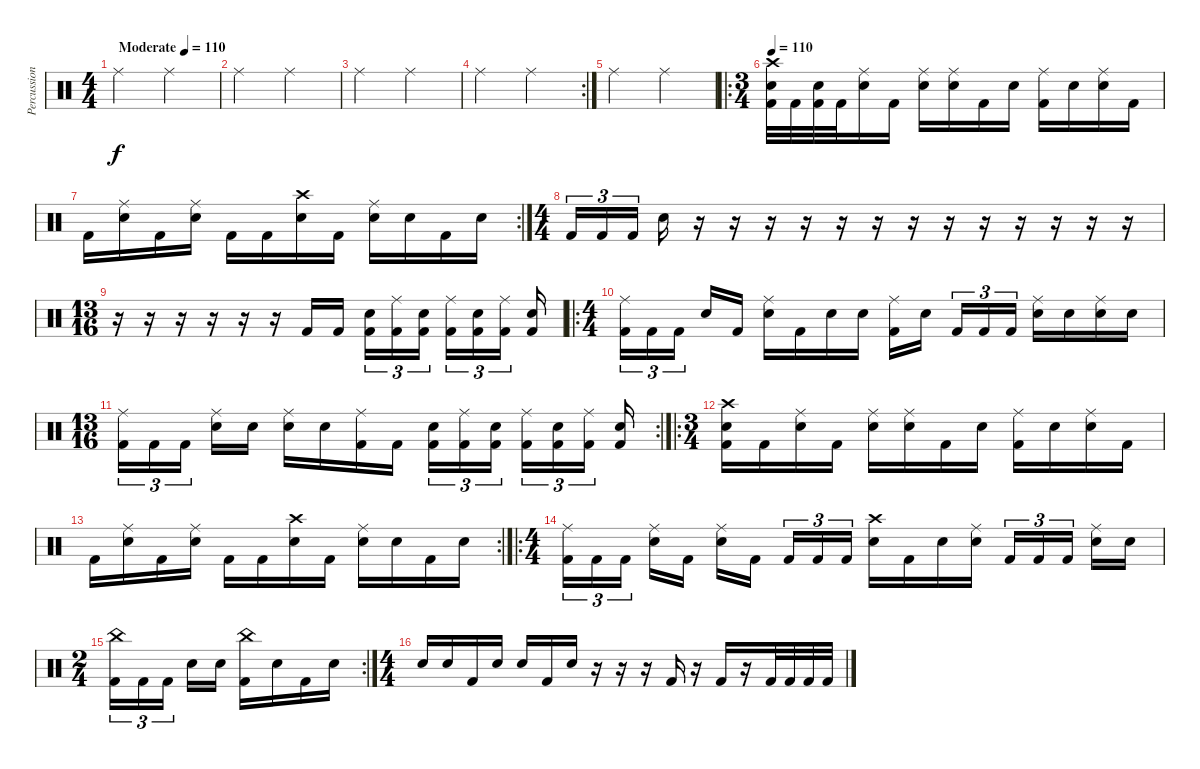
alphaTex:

\track ("Percussion" "Percussion") {instrument percussion}
\staff {score}
\articulation defaults
\ts (4 4)
\tempo (110 "Moderate")
\tempo 80
\tempo (110 "Moderate")
\clef neutral
\ks c "Ride (middle)".2{dy f} "Ride (middle)".2
|
"Ride (middle)".2 "Ride (middle)".2 |
"Ride (middle)".2 "Ride (middle)".2 |
\rc 2 "Ride (middle)".2 "Ride (middle)".2
|
"Ride (middle)".2 "Ride (middle)".2 |
\ro
\ts (3 4)
\tempo 100
\tempo 110
("Crash high (hit)" "Snare (hit) 2" "Kick (hit) 2").32 "Kick (hit) 2".32 ("Snare (hit) 2" "Kick (hit) 2").32 "Kick (hit) 2".32 ("Ride (middle)" "Snare (hit) 2").16 "Kick (hit) 2".16 ("Ride (middle)" "Snare (hit) 2").16 ("Ride (middle)" "Snare (hit) 2").16 "Kick (hit) 2".16 "Snare (hit) 2".16 ("Ride (middle)" "Kick (hit) 2").16 "Snare (hit) 2".16 ("Ride (middle)" "Snare (hit) 2").16 "Kick (hit) 2".16 |
\rc 2 "Kick (hit) 2".16
("Ride (middle)" "Snare (hit) 2").16 "Kick (hit) 2".16 ("Ride (middle)" "Snare (hit) 2").16 "Kick (hit) 2".16 "Kick (hit) 2".16 ("Crash high (hit)" "Snare (hit) 2").16 "Kick (hit) 2".16 ("Ride (middle)" "Snare (hit) 2").16 "Snare (hit) 2".16 "Kick (hit) 2".16 "Snare (hit) 2".16 |
\ts (4 4)
"Kick (hit) 2".16{tu (3 2)} "Kick (hit) 2".16{tu (3 2)} "Kick (hit) 2".16{tu (3 2) beam splitsecondary} "Snare (hit) 2".16 r.16 r.16 r.16 r.16 r.16 r.16 r.16 r.16 r.16 r.16 r.16 r.16 r.16 |
\ts (13 16)
r.16 r.16 r.16 r.16 r.16 r.16 "Kick (hit) 2".16 "Kick (hit) 2".16 ("Snare (hit) 2" "Kick (hit) 2").16{tu (3 2)} ("Ride (middle)" "Kick (hit) 2").16{tu (3 2)} ("Snare (hit) 2" "Kick (hit) 2").16{tu (3 2)} ("Ride (middle)" "Kick (hit) 2").16{tu (3 2)} ("Snare (hit) 2" "Kick (hit) 2").16{tu (3 2)} ("Ride (middle)" "Kick (hit) 2").16{tu (3 2)} ("Snare (hit) 2" "Kick (hit) 2").16 |
\ro
\ts (4 4)
("Ride (middle)" "Kick (hit) 2").16{tu (3 2)} "Kick (hit) 2".16{tu (3 2)} "Kick (hit) 2".16{tu (3 2) beam splitsecondary} "Snare (hit) 2".16 "Kick (hit) 2".16 ("Ride (middle)" "Snare (hit) 2").16 "Kick (hit) 2".16 "Snare (hit) 2".16 "Snare (hit) 2".16 ("Ride (middle)" "Kick (hit) 2").16 "Snare (hit) 2".16{beam splitsecondary} "Kick (hit) 2".16{tu (3 2)} "Kick (hit) 2".16{tu (3 2)} "Kick (hit) 2".16{tu (3 2)} ("Ride (middle)" "Snare (hit) 2").16 "Snare (hit) 2".16 ("Ride (middle)" "Snare (hit) 2").16 "Snare (hit) 2".16 |
\rc 2
\ts (13 16)
("Ride (middle)" "Kick (hit) 2").16{tu (3 2)} "Kick (hit) 2".16{tu (3 2)} "Kick (hit) 2".16{tu (3 2)} ("Ride (middle)" "Snare (hit) 2").16 "Snare (hit) 2".16 ("Ride (middle)" "Snare (hit) 2").16 "Snare (hit) 2".16 ("Ride (middle)" "Kick (hit) 2").16 "Kick (hit) 2".16 ("Snare (hit) 2" "Kick (hit) 2").16{tu (3 2)} ("Ride (middle)" "Kick (hit) 2").16{tu (3 2)} ("Snare (hit) 2" "Kick (hit) 2").16{tu (3 2)} ("Ride (middle)" "Kick (hit) 2").16{tu (3 2)} ("Snare (hit) 2" "Kick (hit) 2").16{tu (3 2)} ("Ride (middle)" "Kick (hit) 2").16{tu (3 2)} ("Snare (hit) 2" "Kick (hit) 2").16 |
\ro
\ts (3 4)
("Crash high (hit)" "Snare (hit) 2" "Kick (hit) 2").16 "Kick (hit) 2".16 ("Ride (middle)" "Snare (hit) 2").16 "Kick (hit) 2".16 ("Ride (middle)" "Snare (hit) 2").16 ("Ride (middle)" "Snare (hit) 2").16 "Kick (hit) 2".16 "Snare (hit) 2".16 ("Ride (middle)" "Kick (hit) 2").16 "Snare (hit) 2".16 ("Ride (middle)" "Snare (hit) 2").16 "Kick (hit) 2".16 |
\rc 2 "Kick (hit) 2".16
("Ride (middle)" "Snare (hit) 2").16 "Kick (hit) 2".16 ("Ride (middle)" "Snare (hit) 2").16 "Kick (hit) 2".16 "Kick (hit) 2".16 ("Crash high (hit)" "Snare (hit) 2").16 "Kick (hit) 2".16 ("Ride (middle)" "Snare (hit) 2").16 "Snare (hit) 2".16 "Kick (hit) 2".16 "Snare (hit) 2".16 |
\ro
\ts (4 4)
("Ride (middle)" "Kick (hit) 2").16{tu (3 2)} "Kick (hit) 2".16{tu (3 2)} "Kick (hit) 2".16{tu (3 2) beam splitsecondary} ("Ride (middle)" "Snare (hit) 2").16 "Kick (hit) 2".16 ("Ride (middle)" "Snare (hit) 2").16 "Kick (hit) 2".16{beam splitsecondary} "Kick (hit) 2".16{tu (3 2)} "Kick (hit) 2".16{tu (3 2)} "Kick (hit) 2".16{tu (3 2)} ("Crash high (hit)" "Snare (hit) 2").16 "Kick (hit) 2".16 "Snare (hit) 2".16 ("Ride (middle)" "Snare (hit) 2").16 "Kick (hit) 2".16{tu (3 2)} "Kick (hit) 2".16{tu (3 2)} "Kick (hit) 2".16{tu (3 2) beam splitsecondary} ("Ride (middle)" "Snare (hit) 2").16 "Snare (hit) 2".16 |
\rc 2
\ts (2 4)
("China (hit)" "Kick (hit) 2").16{tu (3 2)} "Kick (hit) 2".16{tu (3 2)} "Kick (hit) 2".16{tu (3 2) beam splitsecondary} "Snare (hit) 2".16 "Snare (hit) 2".16 ("China (hit)" "Kick (hit) 2").16 "Snare (hit) 2".16 "Kick (hit) 2".16 "Snare (hit) 2".16 |
\ts (4 4)
"Snare (hit) 2".16 "Snare (hit) 2".16 "Kick (hit) 2".16 "Snare (hit) 2".16 "Snare (hit) 2".16 "Kick (hit) 2".16 "Snare (hit) 2".16 r.16 r.16 r.16 "Kick (hit) 2".16 r.16 "Kick (hit) 2".16 r.16 "Kick (hit) 2".32 "Kick (hit) 2".32 "Kick (hit) 2".32 "Kick (hit) 2".32
